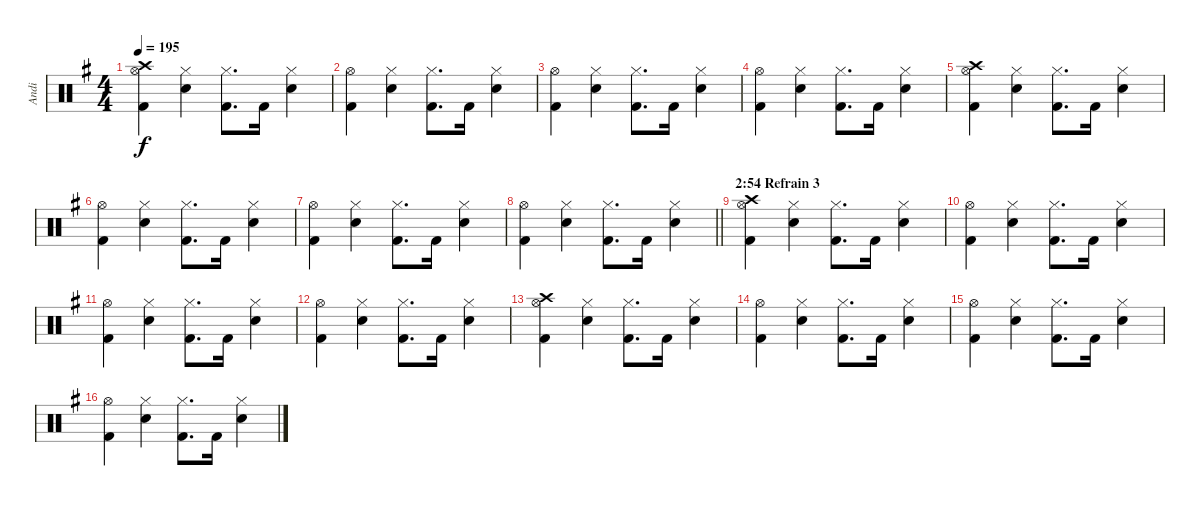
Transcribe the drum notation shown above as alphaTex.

\track ("Andi" "Andi") {instrument percussion}
\staff {score}
\articulation defaults
\ts (4 4)
\tempo 195
\clef neutral
\ks g
("Crash high (hit)" "Hi-Hat (open)" "Kick (hit) 2").4{dy f} ("Hi-Hat (closed)" "Snare (hit) 2").4 ("Hi-Hat (closed)" "Kick (hit) 2").8{d} "Kick (hit) 2".16 ("Hi-Hat (closed)" "Snare (hit) 2").4 |
("Hi-Hat (open)" "Kick (hit) 2").4 ("Hi-Hat (closed)" "Snare (hit) 2").4 ("Hi-Hat (closed)" "Kick (hit) 2").8{d} "Kick (hit) 2".16 ("Hi-Hat (closed)" "Snare (hit) 2").4 |
("Hi-Hat (open)" "Kick (hit) 2").4 ("Hi-Hat (closed)" "Snare (hit) 2").4 ("Hi-Hat (closed)" "Kick (hit) 2").8{d} "Kick (hit) 2".16 ("Hi-Hat (closed)" "Snare (hit) 2").4 |
("Hi-Hat (open)" "Kick (hit) 2").4 ("Hi-Hat (closed)" "Snare (hit) 2").4 ("Hi-Hat (closed)" "Kick (hit) 2").8{d} "Kick (hit) 2".16 ("Hi-Hat (closed)" "Snare (hit) 2").4 |
("Crash high (hit)" "Hi-Hat (open)" "Kick (hit) 2").4 ("Hi-Hat (closed)" "Snare (hit) 2").4 ("Hi-Hat (closed)" "Kick (hit) 2").8{d} "Kick (hit) 2".16 ("Hi-Hat (closed)" "Snare (hit) 2").4 |
("Hi-Hat (open)" "Kick (hit) 2").4 ("Hi-Hat (closed)" "Snare (hit) 2").4 ("Hi-Hat (closed)" "Kick (hit) 2").8{d} "Kick (hit) 2".16 ("Hi-Hat (closed)" "Snare (hit) 2").4 |
("Hi-Hat (open)" "Kick (hit) 2").4 ("Hi-Hat (closed)" "Snare (hit) 2").4 ("Hi-Hat (closed)" "Kick (hit) 2").8{d} "Kick (hit) 2".16 ("Hi-Hat (closed)" "Snare (hit) 2").4 |
\barLineRight lightlight
("Hi-Hat (open)" "Kick (hit) 2").4 ("Hi-Hat (closed)" "Snare (hit) 2").4 ("Hi-Hat (closed)" "Kick (hit) 2").8{d} "Kick (hit) 2".16 ("Hi-Hat (closed)" "Snare (hit) 2").4 |
\section ("" "2:54 Refrain 3")
("Crash high (hit)" "Hi-Hat (open)" "Kick (hit) 2").4 ("Hi-Hat (closed)" "Snare (hit) 2").4 ("Hi-Hat (closed)" "Kick (hit) 2").8{d} "Kick (hit) 2".16 ("Hi-Hat (closed)" "Snare (hit) 2").4 |
("Hi-Hat (open)" "Kick (hit) 2").4 ("Hi-Hat (closed)" "Snare (hit) 2").4 ("Hi-Hat (closed)" "Kick (hit) 2").8{d} "Kick (hit) 2".16 ("Hi-Hat (closed)" "Snare (hit) 2").4 |
("Hi-Hat (open)" "Kick (hit) 2").4 ("Hi-Hat (closed)" "Snare (hit) 2").4 ("Hi-Hat (closed)" "Kick (hit) 2").8{d} "Kick (hit) 2".16 ("Hi-Hat (closed)" "Snare (hit) 2").4 |
("Hi-Hat (open)" "Kick (hit) 2").4 ("Hi-Hat (closed)" "Snare (hit) 2").4 ("Hi-Hat (closed)" "Kick (hit) 2").8{d} "Kick (hit) 2".16 ("Hi-Hat (closed)" "Snare (hit) 2").4 |
("Crash high (hit)" "Hi-Hat (open)" "Kick (hit) 2").4 ("Hi-Hat (closed)" "Snare (hit) 2").4 ("Hi-Hat (closed)" "Kick (hit) 2").8{d} "Kick (hit) 2".16 ("Hi-Hat (closed)" "Snare (hit) 2").4 |
("Hi-Hat (open)" "Kick (hit) 2").4 ("Hi-Hat (closed)" "Snare (hit) 2").4 ("Hi-Hat (closed)" "Kick (hit) 2").8{d} "Kick (hit) 2".16 ("Hi-Hat (closed)" "Snare (hit) 2").4 |
("Hi-Hat (open)" "Kick (hit) 2").4 ("Hi-Hat (closed)" "Snare (hit) 2").4 ("Hi-Hat (closed)" "Kick (hit) 2").8{d} "Kick (hit) 2".16 ("Hi-Hat (closed)" "Snare (hit) 2").4 |
("Hi-Hat (open)" "Kick (hit) 2").4 ("Hi-Hat (closed)" "Snare (hit) 2").4 ("Hi-Hat (closed)" "Kick (hit) 2").8{d} "Kick (hit) 2".16 ("Hi-Hat (closed)" "Snare (hit) 2").4
